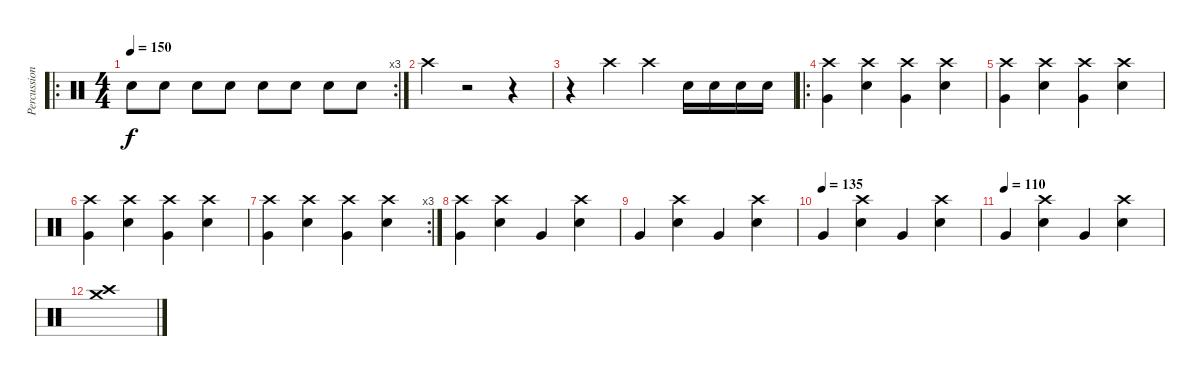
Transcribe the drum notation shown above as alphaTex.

\track ("Percussions" "Percussion") {instrument percussion}
\staff {score}
\articulation defaults
\ro
\rc 3
\ts (4 4)
\tempo 150
\clef neutral
\ks c "Snare (hit) 2".8{dy f} "Snare (hit) 2".8 "Snare (hit) 2".8 "Snare (hit) 2".8 "Snare (hit) 2".8 "Snare (hit) 2".8 "Snare (hit) 2".8 "Snare (hit) 2".8
|
"Crash high (hit)".4 r.2 r.4 |
r.4 "Crash high (hit)".4 "Crash high (hit)".4 "Snare (hit) 2".16 "Snare (hit) 2".16 "Snare (hit) 2".16 "Snare (hit) 2".16 |
\ro
("Very Low Tom (hit)" "Crash high (hit)").4 ("Crash high (hit)" "Snare (hit) 2").4 ("Very Low Tom (hit)" "Crash high (hit)").4 ("Crash high (hit)" "Snare (hit) 2").4 |
("Very Low Tom (hit)" "Crash high (hit)").4 ("Crash high (hit)" "Snare (hit) 2").4 ("Very Low Tom (hit)" "Crash high (hit)").4 ("Crash high (hit)" "Snare (hit) 2").4 |
("Very Low Tom (hit)" "Crash high (hit)").4 ("Crash high (hit)" "Snare (hit) 2").4 ("Very Low Tom (hit)" "Crash high (hit)").4 ("Crash high (hit)" "Snare (hit) 2").4 |
\rc 3
("Very Low Tom (hit)" "Crash high (hit)").4 ("Crash high (hit)" "Snare (hit) 2").4 ("Very Low Tom (hit)" "Crash high (hit)").4 ("Crash high (hit)" "Snare (hit) 2").4 |
("Very Low Tom (hit)" "Crash high (hit)").4 ("Crash high (hit)" "Snare (hit) 2").4 "Very Low Tom (hit)".4 ("Crash high (hit)" "Snare (hit) 2").4 |
"Very Low Tom (hit)".4 ("Crash high (hit)" "Snare (hit) 2").4 "Very Low Tom (hit)".4 ("Crash high (hit)" "Snare (hit) 2").4 |
\tempo (135)
"Very Low Tom (hit)".4 ("Crash high (hit)" "Snare (hit) 2").4 "Very Low Tom (hit)".4 ("Crash high (hit)" "Snare (hit) 2").4 |
\tempo (110)
"Very Low Tom (hit)".4 ("Crash high (hit)" "Snare (hit) 2").4 "Very Low Tom (hit)".4 ("Crash high (hit)" "Snare (hit) 2").4 |
("Crash medium (hit)" "Crash high (hit)").1
